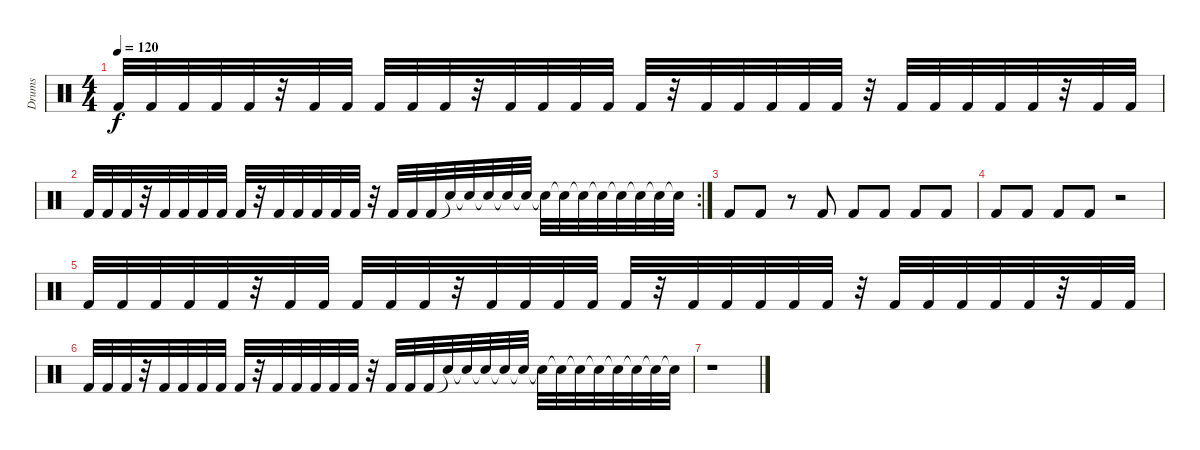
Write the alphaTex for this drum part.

\track ("Drums" "Drums") {instrument percussion}
\staff {score}
\articulation defaults
\ts (4 4)
\tempo 120
\clef neutral
\ks c "Kick (hit) 2".32{dy f} "Kick (hit) 2".32 "Kick (hit) 2".32 "Kick (hit) 2".32 "Kick (hit) 2".32
r.32 "Kick (hit) 2".32 "Kick (hit) 2".32 "Kick (hit) 2".32 "Kick (hit) 2".32 "Kick (hit) 2".32 r.32 "Kick (hit) 2".32 "Kick (hit) 2".32 "Kick (hit) 2".32 "Kick (hit) 2".32 "Kick (hit) 2".32 r.32 "Kick (hit) 2".32 "Kick (hit) 2".32 "Kick (hit) 2".32 "Kick (hit) 2".32 "Kick (hit) 2".32 r.32 "Kick (hit) 2".32 "Kick (hit) 2".32 "Kick (hit) 2".32 "Kick (hit) 2".32 "Kick (hit) 2".32 r.32 "Kick (hit) 2".32 "Kick (hit) 2".32 |
\rc 2 "Kick (hit) 2".32 "Kick (hit) 2".32 "Kick (hit) 2".32
r.32 "Kick (hit) 2".32 "Kick (hit) 2".32 "Kick (hit) 2".32 "Kick (hit) 2".32 "Kick (hit) 2".32 r.32 "Kick (hit) 2".32 "Kick (hit) 2".32 "Kick (hit) 2".32 "Kick (hit) 2".32 "Kick (hit) 2".32 r.32 "Kick (hit) 2".32 "Kick (hit) 2".32 "Kick (hit) 2".32 "Snare (hit)"{t}.32 "Snare (hit)"{t}.32 "Snare (hit)"{t}.32 "Snare (hit)"{t}.32 "Snare (hit)"{t}.32 "Snare (hit)"{t}.32 "Snare (hit)"{t}.32 "Snare (hit)"{t}.32 "Snare (hit)"{t}.32 "Snare (hit)"{t}.32 "Snare (hit)"{t}.32 "Snare (hit)"{t}.32 "Snare (hit)"{t}.32 |
"Kick (hit) 2".8 "Kick (hit) 2".8 r.8 "Kick (hit) 2".8 "Kick (hit) 2".8 "Kick (hit) 2".8 "Kick (hit) 2".8 "Kick (hit) 2".8 |
"Kick (hit) 2".8 "Kick (hit) 2".8 "Kick (hit) 2".8 "Kick (hit) 2".8 r.2 |
"Kick (hit) 2".32 "Kick (hit) 2".32 "Kick (hit) 2".32 "Kick (hit) 2".32 "Kick (hit) 2".32 r.32 "Kick (hit) 2".32 "Kick (hit) 2".32 "Kick (hit) 2".32 "Kick (hit) 2".32 "Kick (hit) 2".32 r.32 "Kick (hit) 2".32 "Kick (hit) 2".32 "Kick (hit) 2".32 "Kick (hit) 2".32 "Kick (hit) 2".32 r.32 "Kick (hit) 2".32 "Kick (hit) 2".32 "Kick (hit) 2".32 "Kick (hit) 2".32 "Kick (hit) 2".32 r.32 "Kick (hit) 2".32 "Kick (hit) 2".32 "Kick (hit) 2".32 "Kick (hit) 2".32 "Kick (hit) 2".32 r.32 "Kick (hit) 2".32 "Kick (hit) 2".32 |
"Kick (hit) 2".32 "Kick (hit) 2".32 "Kick (hit) 2".32 r.32 "Kick (hit) 2".32 "Kick (hit) 2".32 "Kick (hit) 2".32 "Kick (hit) 2".32 "Kick (hit) 2".32 r.32 "Kick (hit) 2".32 "Kick (hit) 2".32 "Kick (hit) 2".32 "Kick (hit) 2".32 "Kick (hit) 2".32 r.32 "Kick (hit) 2".32 "Kick (hit) 2".32 "Kick (hit) 2".32 "Snare (hit)"{t}.32 "Snare (hit)"{t}.32 "Snare (hit)"{t}.32 "Snare (hit)"{t}.32 "Snare (hit)"{t}.32 "Snare (hit)"{t}.32 "Snare (hit)"{t}.32 "Snare (hit)"{t}.32 "Snare (hit)"{t}.32 "Snare (hit)"{t}.32 "Snare (hit)"{t}.32 "Snare (hit)"{t}.32 "Snare (hit)"{t}.32 |
r.1
